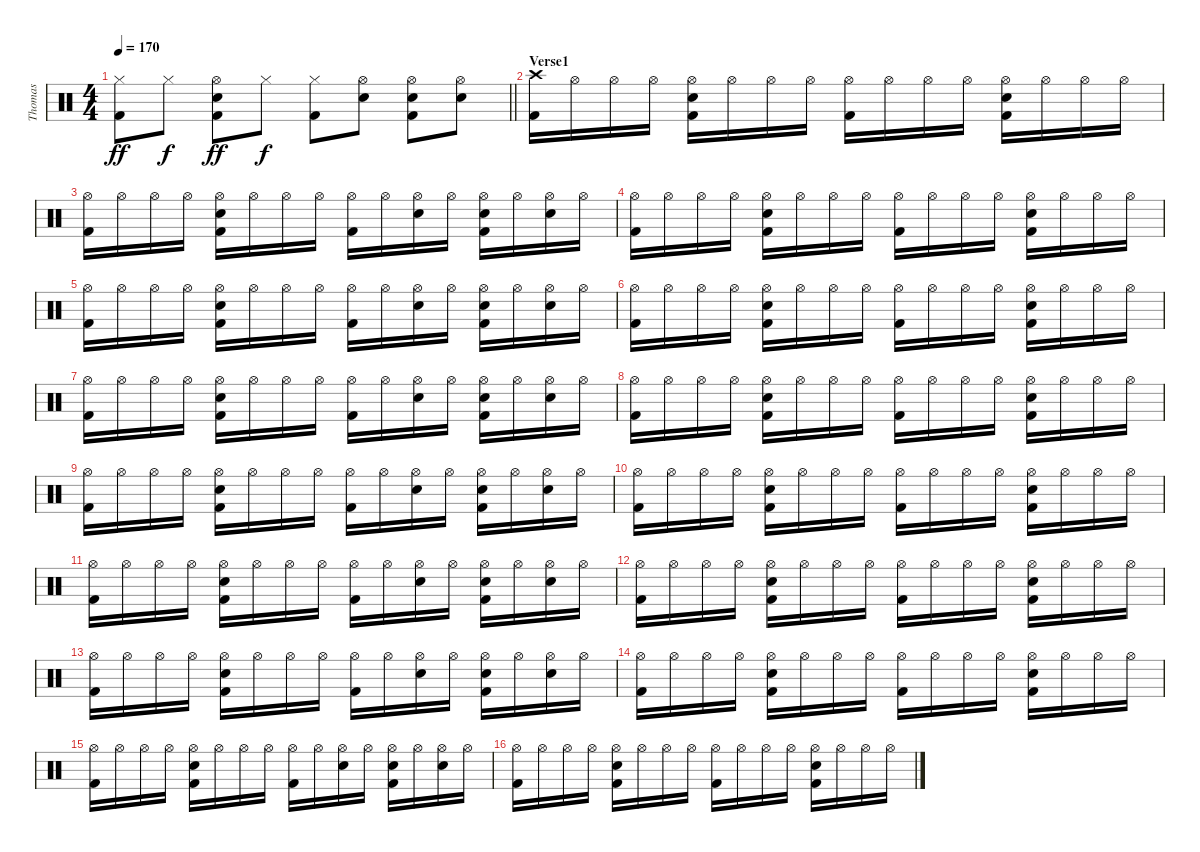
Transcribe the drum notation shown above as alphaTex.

\track ("Thomas" "Thomas") {instrument percussion}
\staff {score}
\articulation defaults
\ts (4 4)
\tempo 170
\clef neutral
\barLineRight lightlight
\ks c
("Hi-Hat (closed)" "Kick (hit) 2").8{dy ff} "Hi-Hat (closed)".8{dy f} ("Hi-Hat (open)" "Snare (hit) 2" "Kick (hit) 2").8{dy ff} "Hi-Hat (closed)".8{dy f} ("Hi-Hat (closed)" "Kick (hit) 2").8 ("Hi-Hat (open)" "Snare (hit) 2").8 ("Hi-Hat (open)" "Snare (hit) 2" "Kick (hit) 2").8 ("Hi-Hat (open)" "Snare (hit) 2").8 |
\section ("" "Verse1")
("Crash high (hit)" "Kick (hit) 2").16 "Hi-Hat (open)".16 "Hi-Hat (open)".16 "Hi-Hat (open)".16 ("Hi-Hat (open)" "Snare (hit) 2" "Kick (hit) 2").16 "Hi-Hat (open)".16 "Hi-Hat (open)".16 "Hi-Hat (open)".16 ("Hi-Hat (open)" "Kick (hit) 2").16 "Hi-Hat (open)".16 "Hi-Hat (open)".16 "Hi-Hat (open)".16 ("Hi-Hat (open)" "Snare (hit) 2" "Kick (hit) 2").16 "Hi-Hat (open)".16 "Hi-Hat (open)".16 "Hi-Hat (open)".16 |
("Hi-Hat (open)" "Kick (hit) 2").16 "Hi-Hat (open)".16 "Hi-Hat (open)".16 "Hi-Hat (open)".16 ("Hi-Hat (open)" "Snare (hit) 2" "Kick (hit) 2").16 "Hi-Hat (open)".16 "Hi-Hat (open)".16 "Hi-Hat (open)".16 ("Hi-Hat (open)" "Kick (hit) 2").16 "Hi-Hat (open)".16 ("Hi-Hat (open)" "Snare (hit) 2").16 "Hi-Hat (open)".16 ("Hi-Hat (open)" "Snare (hit) 2" "Kick (hit) 2").16 "Hi-Hat (open)".16 ("Hi-Hat (open)" "Snare (hit) 2").16 "Hi-Hat (open)".16 |
("Hi-Hat (open)" "Kick (hit) 2").16 "Hi-Hat (open)".16 "Hi-Hat (open)".16 "Hi-Hat (open)".16 ("Hi-Hat (open)" "Snare (hit) 2" "Kick (hit) 2").16 "Hi-Hat (open)".16 "Hi-Hat (open)".16 "Hi-Hat (open)".16 ("Hi-Hat (open)" "Kick (hit) 2").16 "Hi-Hat (open)".16 "Hi-Hat (open)".16 "Hi-Hat (open)".16 ("Hi-Hat (open)" "Snare (hit) 2" "Kick (hit) 2").16 "Hi-Hat (open)".16 "Hi-Hat (open)".16 "Hi-Hat (open)".16 |
("Hi-Hat (open)" "Kick (hit) 2").16 "Hi-Hat (open)".16 "Hi-Hat (open)".16 "Hi-Hat (open)".16 ("Hi-Hat (open)" "Snare (hit) 2" "Kick (hit) 2").16 "Hi-Hat (open)".16 "Hi-Hat (open)".16 "Hi-Hat (open)".16 ("Hi-Hat (open)" "Kick (hit) 2").16 "Hi-Hat (open)".16 ("Hi-Hat (open)" "Snare (hit) 2").16 "Hi-Hat (open)".16 ("Hi-Hat (open)" "Snare (hit) 2" "Kick (hit) 2").16 "Hi-Hat (open)".16 ("Hi-Hat (open)" "Snare (hit) 2").16 "Hi-Hat (open)".16 |
("Hi-Hat (open)" "Kick (hit) 2").16 "Hi-Hat (open)".16 "Hi-Hat (open)".16 "Hi-Hat (open)".16 ("Hi-Hat (open)" "Snare (hit) 2" "Kick (hit) 2").16 "Hi-Hat (open)".16 "Hi-Hat (open)".16 "Hi-Hat (open)".16 ("Hi-Hat (open)" "Kick (hit) 2").16 "Hi-Hat (open)".16 "Hi-Hat (open)".16 "Hi-Hat (open)".16 ("Hi-Hat (open)" "Snare (hit) 2" "Kick (hit) 2").16 "Hi-Hat (open)".16 "Hi-Hat (open)".16 "Hi-Hat (open)".16 |
("Hi-Hat (open)" "Kick (hit) 2").16 "Hi-Hat (open)".16 "Hi-Hat (open)".16 "Hi-Hat (open)".16 ("Hi-Hat (open)" "Snare (hit) 2" "Kick (hit) 2").16 "Hi-Hat (open)".16 "Hi-Hat (open)".16 "Hi-Hat (open)".16 ("Hi-Hat (open)" "Kick (hit) 2").16 "Hi-Hat (open)".16 ("Hi-Hat (open)" "Snare (hit) 2").16 "Hi-Hat (open)".16 ("Hi-Hat (open)" "Snare (hit) 2" "Kick (hit) 2").16 "Hi-Hat (open)".16 ("Hi-Hat (open)" "Snare (hit) 2").16 "Hi-Hat (open)".16 |
("Hi-Hat (open)" "Kick (hit) 2").16 "Hi-Hat (open)".16 "Hi-Hat (open)".16 "Hi-Hat (open)".16 ("Hi-Hat (open)" "Snare (hit) 2" "Kick (hit) 2").16 "Hi-Hat (open)".16 "Hi-Hat (open)".16 "Hi-Hat (open)".16 ("Hi-Hat (open)" "Kick (hit) 2").16 "Hi-Hat (open)".16 "Hi-Hat (open)".16 "Hi-Hat (open)".16 ("Hi-Hat (open)" "Snare (hit) 2" "Kick (hit) 2").16 "Hi-Hat (open)".16 "Hi-Hat (open)".16 "Hi-Hat (open)".16 |
("Hi-Hat (open)" "Kick (hit) 2").16 "Hi-Hat (open)".16 "Hi-Hat (open)".16 "Hi-Hat (open)".16 ("Hi-Hat (open)" "Snare (hit) 2" "Kick (hit) 2").16 "Hi-Hat (open)".16 "Hi-Hat (open)".16 "Hi-Hat (open)".16 ("Hi-Hat (open)" "Kick (hit) 2").16 "Hi-Hat (open)".16 ("Hi-Hat (open)" "Snare (hit) 2").16 "Hi-Hat (open)".16 ("Hi-Hat (open)" "Snare (hit) 2" "Kick (hit) 2").16 "Hi-Hat (open)".16 ("Hi-Hat (open)" "Snare (hit) 2").16 "Hi-Hat (open)".16 |
("Hi-Hat (open)" "Kick (hit) 2").16 "Hi-Hat (open)".16 "Hi-Hat (open)".16 "Hi-Hat (open)".16 ("Hi-Hat (open)" "Snare (hit) 2" "Kick (hit) 2").16 "Hi-Hat (open)".16 "Hi-Hat (open)".16 "Hi-Hat (open)".16 ("Hi-Hat (open)" "Kick (hit) 2").16 "Hi-Hat (open)".16 "Hi-Hat (open)".16 "Hi-Hat (open)".16 ("Hi-Hat (open)" "Snare (hit) 2" "Kick (hit) 2").16 "Hi-Hat (open)".16 "Hi-Hat (open)".16 "Hi-Hat (open)".16 |
("Hi-Hat (open)" "Kick (hit) 2").16 "Hi-Hat (open)".16 "Hi-Hat (open)".16 "Hi-Hat (open)".16 ("Hi-Hat (open)" "Snare (hit) 2" "Kick (hit) 2").16 "Hi-Hat (open)".16 "Hi-Hat (open)".16 "Hi-Hat (open)".16 ("Hi-Hat (open)" "Kick (hit) 2").16 "Hi-Hat (open)".16 ("Hi-Hat (open)" "Snare (hit) 2").16 "Hi-Hat (open)".16 ("Hi-Hat (open)" "Snare (hit) 2" "Kick (hit) 2").16 "Hi-Hat (open)".16 ("Hi-Hat (open)" "Snare (hit) 2").16 "Hi-Hat (open)".16 |
("Hi-Hat (open)" "Kick (hit) 2").16 "Hi-Hat (open)".16 "Hi-Hat (open)".16 "Hi-Hat (open)".16 ("Hi-Hat (open)" "Snare (hit) 2" "Kick (hit) 2").16 "Hi-Hat (open)".16 "Hi-Hat (open)".16 "Hi-Hat (open)".16 ("Hi-Hat (open)" "Kick (hit) 2").16 "Hi-Hat (open)".16 "Hi-Hat (open)".16 "Hi-Hat (open)".16 ("Hi-Hat (open)" "Snare (hit) 2" "Kick (hit) 2").16 "Hi-Hat (open)".16 "Hi-Hat (open)".16 "Hi-Hat (open)".16 |
("Hi-Hat (open)" "Kick (hit) 2").16 "Hi-Hat (open)".16 "Hi-Hat (open)".16 "Hi-Hat (open)".16 ("Hi-Hat (open)" "Snare (hit) 2" "Kick (hit) 2").16 "Hi-Hat (open)".16 "Hi-Hat (open)".16 "Hi-Hat (open)".16 ("Hi-Hat (open)" "Kick (hit) 2").16 "Hi-Hat (open)".16 ("Hi-Hat (open)" "Snare (hit) 2").16 "Hi-Hat (open)".16 ("Hi-Hat (open)" "Snare (hit) 2" "Kick (hit) 2").16 "Hi-Hat (open)".16 ("Hi-Hat (open)" "Snare (hit) 2").16 "Hi-Hat (open)".16 |
("Hi-Hat (open)" "Kick (hit) 2").16 "Hi-Hat (open)".16 "Hi-Hat (open)".16 "Hi-Hat (open)".16 ("Hi-Hat (open)" "Snare (hit) 2" "Kick (hit) 2").16 "Hi-Hat (open)".16 "Hi-Hat (open)".16 "Hi-Hat (open)".16 ("Hi-Hat (open)" "Kick (hit) 2").16 "Hi-Hat (open)".16 "Hi-Hat (open)".16 "Hi-Hat (open)".16 ("Hi-Hat (open)" "Snare (hit) 2" "Kick (hit) 2").16 "Hi-Hat (open)".16 "Hi-Hat (open)".16 "Hi-Hat (open)".16 |
("Hi-Hat (open)" "Kick (hit) 2").16 "Hi-Hat (open)".16 "Hi-Hat (open)".16 "Hi-Hat (open)".16 ("Hi-Hat (open)" "Snare (hit) 2" "Kick (hit) 2").16 "Hi-Hat (open)".16 "Hi-Hat (open)".16 "Hi-Hat (open)".16 ("Hi-Hat (open)" "Kick (hit) 2").16 "Hi-Hat (open)".16 ("Hi-Hat (open)" "Snare (hit) 2").16 "Hi-Hat (open)".16 ("Hi-Hat (open)" "Snare (hit) 2" "Kick (hit) 2").16 "Hi-Hat (open)".16 ("Hi-Hat (open)" "Snare (hit) 2").16 "Hi-Hat (open)".16 |
("Hi-Hat (open)" "Kick (hit) 2").16 "Hi-Hat (open)".16 "Hi-Hat (open)".16 "Hi-Hat (open)".16 ("Hi-Hat (open)" "Snare (hit) 2" "Kick (hit) 2").16 "Hi-Hat (open)".16 "Hi-Hat (open)".16 "Hi-Hat (open)".16 ("Hi-Hat (open)" "Kick (hit) 2").16 "Hi-Hat (open)".16 "Hi-Hat (open)".16 "Hi-Hat (open)".16 ("Hi-Hat (open)" "Snare (hit) 2" "Kick (hit) 2").16 "Hi-Hat (open)".16 "Hi-Hat (open)".16 "Hi-Hat (open)".16
